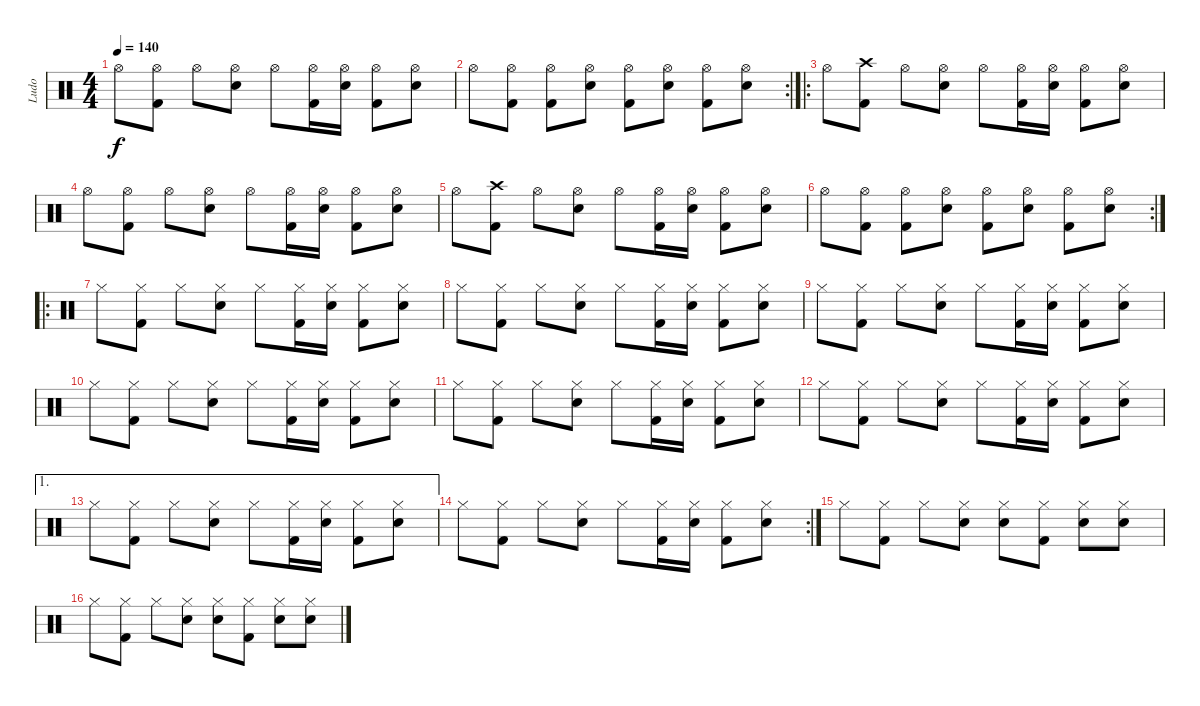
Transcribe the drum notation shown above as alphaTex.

\track ("Ludo" "Ludo") {instrument percussion}
\staff {score}
\articulation defaults
\ts (4 4)
\tempo 140
\clef neutral
\ks c "Hi-Hat (open)".8{dy f}
("Hi-Hat (open)" "Kick (hit) 2").8 "Hi-Hat (open)".8 ("Hi-Hat (open)" "Electric Snare (hit)").8 "Hi-Hat (open)".8 ("Hi-Hat (open)" "Kick (hit) 2").16 ("Hi-Hat (open)" "Electric Snare (hit)").16 ("Hi-Hat (open)" "Kick (hit) 2").8 ("Hi-Hat (open)" "Electric Snare (hit)").8 |
\rc 2 "Hi-Hat (open)".8
("Hi-Hat (open)" "Kick (hit) 2").8 ("Hi-Hat (open)" "Kick (hit) 2").8 ("Hi-Hat (open)" "Electric Snare (hit)").8 ("Hi-Hat (open)" "Kick (hit) 2").8 ("Hi-Hat (open)" "Electric Snare (hit)").8 ("Hi-Hat (open)" "Kick (hit) 2").8 ("Hi-Hat (open)" "Electric Snare (hit)").8 |
\ro "Hi-Hat (open)".8
("Crash high (hit)" "Kick (hit) 2").8 "Hi-Hat (open)".8 ("Hi-Hat (open)" "Electric Snare (hit)").8 "Hi-Hat (open)".8 ("Hi-Hat (open)" "Kick (hit) 2").16 ("Hi-Hat (open)" "Electric Snare (hit)").16 ("Hi-Hat (open)" "Kick (hit) 2").8 ("Hi-Hat (open)" "Electric Snare (hit)").8 |
"Hi-Hat (open)".8 ("Hi-Hat (open)" "Kick (hit) 2").8 "Hi-Hat (open)".8 ("Hi-Hat (open)" "Electric Snare (hit)").8 "Hi-Hat (open)".8 ("Hi-Hat (open)" "Kick (hit) 2").16 ("Hi-Hat (open)" "Electric Snare (hit)").16 ("Hi-Hat (open)" "Kick (hit) 2").8 ("Hi-Hat (open)" "Electric Snare (hit)").8 |
"Hi-Hat (open)".8 ("Crash high (hit)" "Kick (hit) 2").8 "Hi-Hat (open)".8 ("Hi-Hat (open)" "Electric Snare (hit)").8 "Hi-Hat (open)".8 ("Hi-Hat (open)" "Kick (hit) 2").16 ("Hi-Hat (open)" "Electric Snare (hit)").16 ("Hi-Hat (open)" "Kick (hit) 2").8 ("Hi-Hat (open)" "Electric Snare (hit)").8 |
\rc 2 "Hi-Hat (open)".8
("Hi-Hat (open)" "Kick (hit) 2").8 ("Hi-Hat (open)" "Kick (hit) 2").8 ("Hi-Hat (open)" "Electric Snare (hit)").8 ("Hi-Hat (open)" "Kick (hit) 2").8 ("Hi-Hat (open)" "Electric Snare (hit)").8 ("Hi-Hat (open)" "Kick (hit) 2").8 ("Hi-Hat (open)" "Electric Snare (hit)").8 |
\ro "Hi-Hat (closed)".8
("Hi-Hat (closed)" "Kick (hit) 2").8 "Hi-Hat (closed)".8 ("Hi-Hat (closed)" "Electric Snare (hit)").8 "Hi-Hat (closed)".8 ("Hi-Hat (closed)" "Kick (hit) 2").16 ("Hi-Hat (closed)" "Electric Snare (hit)").16 ("Hi-Hat (closed)" "Kick (hit) 2").8 ("Hi-Hat (closed)" "Electric Snare (hit)").8 |
"Hi-Hat (closed)".8 ("Hi-Hat (closed)" "Kick (hit) 2").8 "Hi-Hat (closed)".8 ("Hi-Hat (closed)" "Electric Snare (hit)").8 "Hi-Hat (closed)".8 ("Hi-Hat (closed)" "Kick (hit) 2").16 ("Hi-Hat (closed)" "Electric Snare (hit)").16 ("Hi-Hat (closed)" "Kick (hit) 2").8 ("Hi-Hat (closed)" "Electric Snare (hit)").8 |
"Hi-Hat (closed)".8 ("Hi-Hat (closed)" "Kick (hit) 2").8 "Hi-Hat (closed)".8 ("Hi-Hat (closed)" "Electric Snare (hit)").8 "Hi-Hat (closed)".8 ("Hi-Hat (closed)" "Kick (hit) 2").16 ("Hi-Hat (closed)" "Electric Snare (hit)").16 ("Hi-Hat (closed)" "Kick (hit) 2").8 ("Hi-Hat (closed)" "Electric Snare (hit)").8 |
"Hi-Hat (closed)".8 ("Hi-Hat (closed)" "Kick (hit) 2").8 "Hi-Hat (closed)".8 ("Hi-Hat (closed)" "Electric Snare (hit)").8 "Hi-Hat (closed)".8 ("Hi-Hat (closed)" "Kick (hit) 2").16 ("Hi-Hat (closed)" "Electric Snare (hit)").16 ("Hi-Hat (closed)" "Kick (hit) 2").8 ("Hi-Hat (closed)" "Electric Snare (hit)").8 |
"Hi-Hat (closed)".8 ("Hi-Hat (closed)" "Kick (hit) 2").8 "Hi-Hat (closed)".8 ("Hi-Hat (closed)" "Electric Snare (hit)").8 "Hi-Hat (closed)".8 ("Hi-Hat (closed)" "Kick (hit) 2").16 ("Hi-Hat (closed)" "Electric Snare (hit)").16 ("Hi-Hat (closed)" "Kick (hit) 2").8 ("Hi-Hat (closed)" "Electric Snare (hit)").8 |
"Hi-Hat (closed)".8 ("Hi-Hat (closed)" "Kick (hit) 2").8 "Hi-Hat (closed)".8 ("Hi-Hat (closed)" "Electric Snare (hit)").8 "Hi-Hat (closed)".8 ("Hi-Hat (closed)" "Kick (hit) 2").16 ("Hi-Hat (closed)" "Electric Snare (hit)").16 ("Hi-Hat (closed)" "Kick (hit) 2").8 ("Hi-Hat (closed)" "Electric Snare (hit)").8 |
\ae 1 "Hi-Hat (closed)".8
("Hi-Hat (closed)" "Kick (hit) 2").8 "Hi-Hat (closed)".8 ("Hi-Hat (closed)" "Electric Snare (hit)").8 "Hi-Hat (closed)".8 ("Hi-Hat (closed)" "Kick (hit) 2").16 ("Hi-Hat (closed)" "Electric Snare (hit)").16 ("Hi-Hat (closed)" "Kick (hit) 2").8 ("Hi-Hat (closed)" "Electric Snare (hit)").8 |
\rc 2 "Hi-Hat (closed)".8
("Hi-Hat (closed)" "Kick (hit) 2").8 "Hi-Hat (closed)".8 ("Hi-Hat (closed)" "Electric Snare (hit)").8 "Hi-Hat (closed)".8 ("Hi-Hat (closed)" "Kick (hit) 2").16 ("Hi-Hat (closed)" "Electric Snare (hit)").16 ("Hi-Hat (closed)" "Kick (hit) 2").8 ("Hi-Hat (closed)" "Electric Snare (hit)").8 |
"Hi-Hat (closed)".8 ("Hi-Hat (closed)" "Kick (hit) 2").8 "Hi-Hat (closed)".8 ("Hi-Hat (closed)" "Electric Snare (hit)").8 ("Hi-Hat (closed)" "Electric Snare (hit)").8 ("Hi-Hat (closed)" "Kick (hit) 2").8 ("Hi-Hat (closed)" "Electric Snare (hit)").8 ("Hi-Hat (closed)" "Electric Snare (hit)").8 |
"Hi-Hat (closed)".8 ("Hi-Hat (closed)" "Kick (hit) 2").8 "Hi-Hat (closed)".8 ("Hi-Hat (closed)" "Electric Snare (hit)").8 ("Hi-Hat (closed)" "Electric Snare (hit)").8 ("Hi-Hat (closed)" "Kick (hit) 2").8 ("Hi-Hat (closed)" "Electric Snare (hit)").8 ("Hi-Hat (closed)" "Electric Snare (hit)").8
